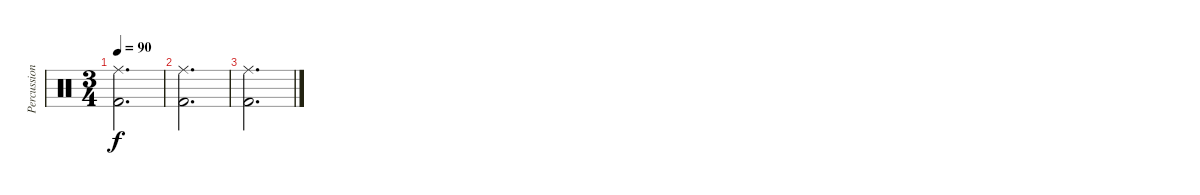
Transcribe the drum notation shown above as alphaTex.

\track ("Percussion" "Percussion") {instrument percussion}
\staff {score}
\articulation defaults
\ts (3 4)
\tempo 90
\clef neutral
\ks c
("Ride (middle)" "Kick (hit) 2").2{d dy f} |
("Ride (middle)" "Kick (hit) 2").2{d} |
("Ride (middle)" "Kick (hit) 2").2{d}
